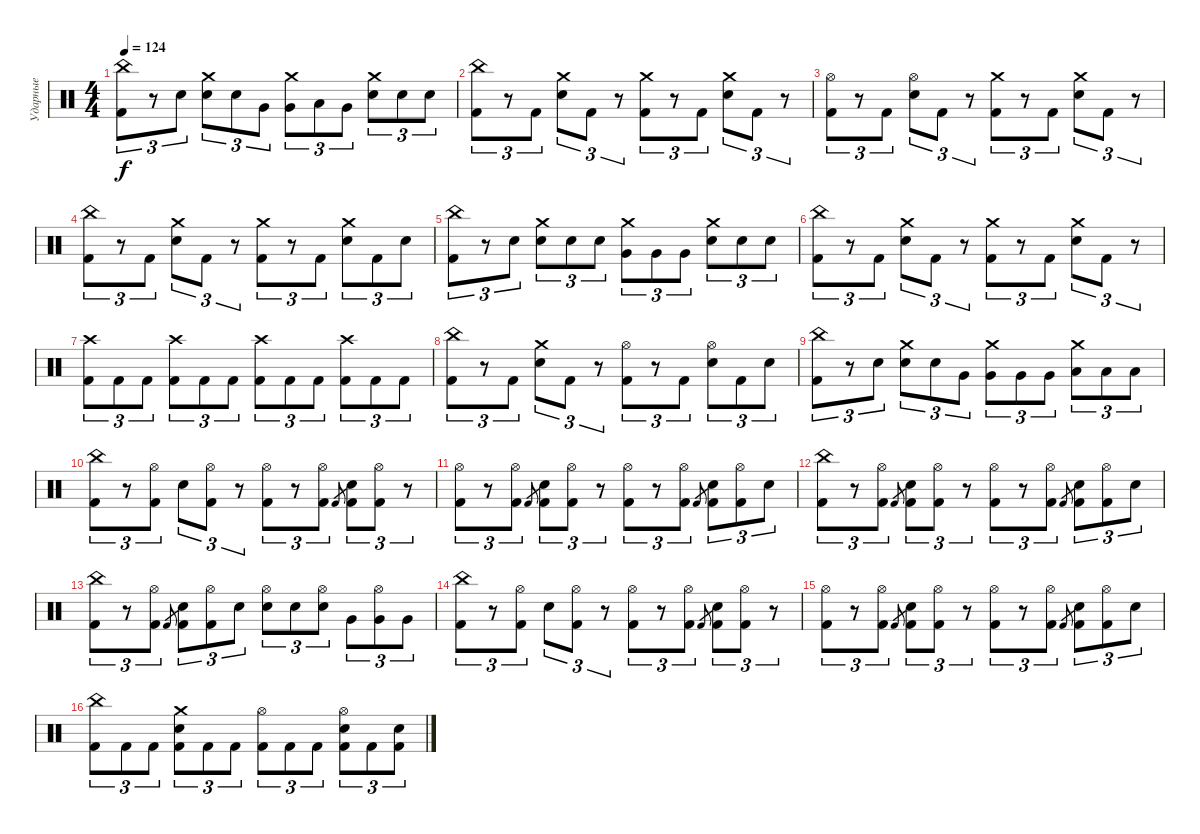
\track ("Ударные" "Ударные") {instrument percussion}
\staff {score}
\articulation defaults
\ts (4 4)
\tempo 124
\clef neutral
\ks c
("China (hit)" "Kick (hit) 2").8{tu (3 2) dy f} r.8{tu (3 2)} "Snare (hit) 2".8{tu (3 2)} ("Crash medium (hit)" "Snare (hit) 2").8{tu (3 2)} "Snare (hit) 2".8{tu (3 2)} "Very Low Tom (hit)".8{tu (3 2)} ("Crash medium (hit)" "Very Low Tom (hit)").8{tu (3 2)} "Low Tom (hit)".8{tu (3 2)} "Very Low Tom (hit)".8{tu (3 2)} ("Crash medium (hit)" "Snare (hit) 2").8{tu (3 2)} "Snare (hit) 2".8{tu (3 2)} "Snare (hit) 2".8{tu (3 2)} |
("China (hit)" "Kick (hit) 2").8{tu (3 2)} r.8{tu (3 2)} "Kick (hit) 2".8{tu (3 2)} ("Crash medium (hit)" "Snare (hit) 2").8{tu (3 2)} "Kick (hit) 2".8{tu (3 2)} r.8{tu (3 2)} ("Crash medium (hit)" "Kick (hit) 2").8{tu (3 2)} r.8{tu (3 2)} "Kick (hit) 2".8{tu (3 2)} ("Crash medium (hit)" "Snare (hit) 2").8{tu (3 2)} "Kick (hit) 2".8{tu (3 2)} r.8{tu (3 2)} |
("Hi-Hat (open)" "Kick (hit) 2").8{tu (3 2)} r.8{tu (3 2)} "Kick (hit) 2".8{tu (3 2)} ("Hi-Hat (open)" "Snare (hit) 2").8{tu (3 2)} "Kick (hit) 2".8{tu (3 2)} r.8{tu (3 2)} ("Crash medium (hit)" "Kick (hit) 2").8{tu (3 2)} r.8{tu (3 2)} "Kick (hit) 2".8{tu (3 2)} ("Crash medium (hit)" "Snare (hit) 2").8{tu (3 2)} "Kick (hit) 2".8{tu (3 2)} r.8{tu (3 2)} |
("China (hit)" "Kick (hit) 2").8{tu (3 2)} r.8{tu (3 2)} "Kick (hit) 2".8{tu (3 2)} ("Crash medium (hit)" "Snare (hit) 2").8{tu (3 2)} "Kick (hit) 2".8{tu (3 2)} r.8{tu (3 2)} ("Crash medium (hit)" "Kick (hit) 2").8{tu (3 2)} r.8{tu (3 2)} "Kick (hit) 2".8{tu (3 2)} ("Crash medium (hit)" "Snare (hit) 2").8{tu (3 2)} "Kick (hit) 2".8{tu (3 2)} "Snare (hit) 2".8{tu (3 2)} |
("China (hit)" "Kick (hit) 2").8{tu (3 2)} r.8{tu (3 2)} "Snare (hit) 2".8{tu (3 2)} ("Crash medium (hit)" "Snare (hit) 2").8{tu (3 2)} "Snare (hit) 2".8{tu (3 2)} "Snare (hit) 2".8{tu (3 2)} ("Crash medium (hit)" "Very Low Tom (hit)").8{tu (3 2)} "Very Low Tom (hit)".8{tu (3 2)} "Very Low Tom (hit)".8{tu (3 2)} ("Crash medium (hit)" "Snare (hit) 2").8{tu (3 2)} "Snare (hit) 2".8{tu (3 2)} "Snare (hit) 2".8{tu (3 2)} |
("China (hit)" "Kick (hit) 2").8{tu (3 2)} r.8{tu (3 2)} "Kick (hit) 2".8{tu (3 2)} ("Crash medium (hit)" "Snare (hit) 2").8{tu (3 2)} "Kick (hit) 2".8{tu (3 2)} r.8{tu (3 2)} ("Crash medium (hit)" "Kick (hit) 2").8{tu (3 2)} r.8{tu (3 2)} "Kick (hit) 2".8{tu (3 2)} ("Crash medium (hit)" "Snare (hit) 2").8{tu (3 2)} "Kick (hit) 2".8{tu (3 2)} r.8{tu (3 2)} |
("Crash high (hit)" "Kick (hit) 2").8{tu (3 2)} "Kick (hit) 2".8{tu (3 2)} "Kick (hit) 2".8{tu (3 2)} ("Crash high (hit)" "Kick (hit) 2").8{tu (3 2)} "Kick (hit) 2".8{tu (3 2)} "Kick (hit) 2".8{tu (3 2)} ("Crash high (hit)" "Kick (hit) 2").8{tu (3 2)} "Kick (hit) 2".8{tu (3 2)} "Kick (hit) 2".8{tu (3 2)} ("Crash high (hit)" "Kick (hit) 2").8{tu (3 2)} "Kick (hit) 2".8{tu (3 2)} "Kick (hit) 2".8{tu (3 2)} |
("China (hit)" "Kick (hit) 2").8{tu (3 2)} r.8{tu (3 2)} "Kick (hit) 2".8{tu (3 2)} ("Crash medium (hit)" "Snare (hit) 2").8{tu (3 2)} "Kick (hit) 2".8{tu (3 2)} r.8{tu (3 2)} ("Hi-Hat (open)" "Kick (hit) 2").8{tu (3 2)} r.8{tu (3 2)} "Kick (hit) 2".8{tu (3 2)} ("Hi-Hat (open)" "Snare (hit) 2").8{tu (3 2)} "Kick (hit) 2".8{tu (3 2)} "Snare (hit) 2".8{tu (3 2)} |
("China (hit)" "Kick (hit) 2").8{tu (3 2)} r.8{tu (3 2)} "Snare (hit) 2".8{tu (3 2)} ("Crash medium (hit)" "Snare (hit) 2").8{tu (3 2)} "Snare (hit) 2".8{tu (3 2)} "Very Low Tom (hit)".8{tu (3 2)} ("Crash medium (hit)" "Very Low Tom (hit)").8{tu (3 2)} "Very Low Tom (hit)".8{tu (3 2)} "Very Low Tom (hit)".8{tu (3 2)} ("Crash medium (hit)" "Low Tom (hit)").8{tu (3 2)} "Low Tom (hit)".8{tu (3 2)} "Low Tom (hit)".8{tu (3 2)} |
("China (hit)" "Kick (hit) 2").8{tu (3 2)} r.8{tu (3 2)} ("Hi-Hat (open)" "Kick (hit) 2").8{tu (3 2)} "Snare (hit) 2".8{tu (3 2)} ("Hi-Hat (open)" "Kick (hit) 2").8{tu (3 2)} r.8{tu (3 2)} ("Hi-Hat (open)" "Kick (hit) 2").8{tu (3 2)} r.8{tu (3 2)} ("Hi-Hat (open)" "Kick (hit) 2").8{tu (3 2)} "Kick (hit) 2".8{gr} ("Snare (hit) 2" "Kick (hit) 2").8{tu (3 2)} ("Hi-Hat (open)" "Kick (hit) 2").8{tu (3 2)} r.8{tu (3 2)} |
("Hi-Hat (open)" "Kick (hit) 2").8{tu (3 2)} r.8{tu (3 2)} ("Hi-Hat (open)" "Kick (hit) 2").8{tu (3 2)} "Kick (hit) 2".8{gr} ("Snare (hit) 2" "Kick (hit) 2").8{tu (3 2)} ("Hi-Hat (open)" "Kick (hit) 2").8{tu (3 2)} r.8{tu (3 2)} ("Hi-Hat (open)" "Kick (hit) 2").8{tu (3 2)} r.8{tu (3 2)} ("Hi-Hat (open)" "Kick (hit) 2").8{tu (3 2)} "Kick (hit) 2".8{gr} ("Snare (hit) 2" "Kick (hit) 2").8{tu (3 2)} ("Hi-Hat (open)" "Kick (hit) 2").8{tu (3 2)} "Snare (hit) 2".8{tu (3 2)} |
("China (hit)" "Kick (hit) 2").8{tu (3 2)} r.8{tu (3 2)} ("Hi-Hat (open)" "Kick (hit) 2").8{tu (3 2)} "Kick (hit) 2".8{gr} ("Snare (hit) 2" "Kick (hit) 2").8{tu (3 2)} ("Hi-Hat (open)" "Kick (hit) 2").8{tu (3 2)} r.8{tu (3 2)} ("Hi-Hat (open)" "Kick (hit) 2").8{tu (3 2)} r.8{tu (3 2)} ("Hi-Hat (open)" "Kick (hit) 2").8{tu (3 2)} "Kick (hit) 2".8{gr} ("Snare (hit) 2" "Kick (hit) 2").8{tu (3 2)} ("Hi-Hat (open)" "Kick (hit) 2").8{tu (3 2)} "Snare (hit) 2".8{tu (3 2)} |
("China (hit)" "Kick (hit) 2").8{tu (3 2)} r.8{tu (3 2)} ("Hi-Hat (open)" "Kick (hit) 2").8{tu (3 2)} "Kick (hit) 2".8{gr} ("Snare (hit) 2" "Kick (hit) 2").8{tu (3 2)} ("Hi-Hat (open)" "Kick (hit) 2").8{tu (3 2)} "Snare (hit) 2".8{tu (3 2)} ("Hi-Hat (open)" "Snare (hit) 2").8{tu (3 2)} "Snare (hit) 2".8{tu (3 2)} ("Hi-Hat (open)" "Snare (hit) 2").8{tu (3 2)} "Very Low Tom (hit)".8{tu (3 2)} ("Hi-Hat (open)" "Very Low Tom (hit)").8{tu (3 2)} "Very Low Tom (hit)".8{tu (3 2)} |
("China (hit)" "Kick (hit) 2").8{tu (3 2)} r.8{tu (3 2)} ("Hi-Hat (open)" "Kick (hit) 2").8{tu (3 2)} "Snare (hit) 2".8{tu (3 2)} ("Hi-Hat (open)" "Kick (hit) 2").8{tu (3 2)} r.8{tu (3 2)} ("Hi-Hat (open)" "Kick (hit) 2").8{tu (3 2)} r.8{tu (3 2)} ("Hi-Hat (open)" "Kick (hit) 2").8{tu (3 2)} "Kick (hit) 2".8{gr} ("Snare (hit) 2" "Kick (hit) 2").8{tu (3 2)} ("Hi-Hat (open)" "Kick (hit) 2").8{tu (3 2)} r.8{tu (3 2)} |
("Hi-Hat (open)" "Kick (hit) 2").8{tu (3 2)} r.8{tu (3 2)} ("Hi-Hat (open)" "Kick (hit) 2").8{tu (3 2)} "Kick (hit) 2".8{gr} ("Snare (hit) 2" "Kick (hit) 2").8{tu (3 2)} ("Hi-Hat (open)" "Kick (hit) 2").8{tu (3 2)} r.8{tu (3 2)} ("Hi-Hat (open)" "Kick (hit) 2").8{tu (3 2)} r.8{tu (3 2)} ("Hi-Hat (open)" "Kick (hit) 2").8{tu (3 2)} "Kick (hit) 2".8{gr} ("Snare (hit) 2" "Kick (hit) 2").8{tu (3 2)} ("Hi-Hat (open)" "Kick (hit) 2").8{tu (3 2)} "Snare (hit) 2".8{tu (3 2)} |
("China (hit)" "Kick (hit) 2").8{tu (3 2)} "Kick (hit) 2".8{tu (3 2)} "Kick (hit) 2".8{tu (3 2)} ("Crash medium (hit)" "Snare (hit) 2" "Kick (hit) 2").8{tu (3 2)} "Kick (hit) 2".8{tu (3 2)} "Kick (hit) 2".8{tu (3 2)} ("Hi-Hat (open)" "Kick (hit) 2").8{tu (3 2)} "Kick (hit) 2".8{tu (3 2)} "Kick (hit) 2".8{tu (3 2)} ("Hi-Hat (open)" "Snare (hit) 2" "Kick (hit) 2").8{tu (3 2)} "Kick (hit) 2".8{tu (3 2)} ("Snare (hit) 2" "Kick (hit) 2").8{tu (3 2)}
